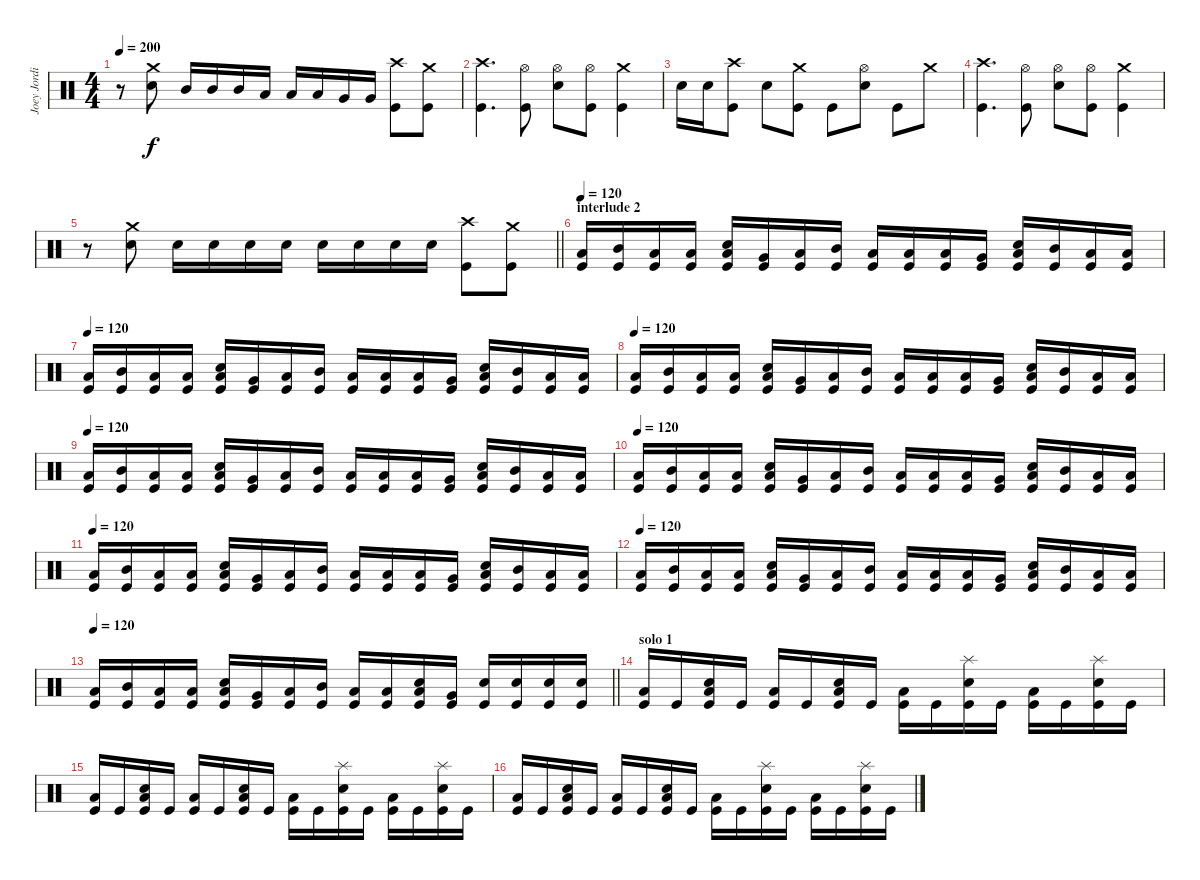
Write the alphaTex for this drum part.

\track ("Joey Jordison" "Joey Jordi") {instrument percussion}
\staff {score}
\articulation defaults
\ts (4 4)
\tempo 200
\clef neutral
\ks c
r.8{dy f} ("Crash medium (hit)" "Electric Snare (hit)").8 "Mid Tom (hit)".16 "Mid Tom (hit)".16 "Mid Tom (hit)".16 "Low Tom (hit)".16 "Low Tom (hit)".16 "Low Tom (hit)".16 "Very Low Tom (hit)".16 "Very Low Tom (hit)".16 ("Crash high (hit)" "Kick (hit)").8 ("Crash medium (hit)" "Kick (hit)").8 |
("Crash high (hit)" "Kick (hit)").4{d} ("Hi-Hat (open)" "Kick (hit)").8 ("Hi-Hat (open)" "Electric Snare (hit)").8 ("Hi-Hat (open)" "Kick (hit)").8 ("Crash medium (hit)" "Kick (hit)").4 |
"Electric Snare (hit)".16 "Electric Snare (hit)".16 ("Crash high (hit)" "Kick (hit)").8 "Electric Snare (hit)".8 ("Crash medium (hit)" "Kick (hit)").8 "Kick (hit)".8 ("Hi-Hat (open)" "Electric Snare (hit)").8 "Kick (hit)".8 "Crash medium (hit)".8 |
("Crash high (hit)" "Kick (hit)").4{d} ("Hi-Hat (open)" "Kick (hit)").8 ("Hi-Hat (open)" "Electric Snare (hit)").8 ("Hi-Hat (open)" "Kick (hit)").8 ("Crash medium (hit)" "Kick (hit)").4 |
\barLineRight lightlight
r.8 ("Crash medium (hit)" "Electric Snare (hit)").8 "Electric Snare (hit)".16 "Electric Snare (hit)".16 "Electric Snare (hit)".16 "Electric Snare (hit)".16 "Electric Snare (hit)".16 "Electric Snare (hit)".16 "Electric Snare (hit)".16 "Electric Snare (hit)".16 ("Crash high (hit)" "Kick (hit)").8 ("Crash medium (hit)" "Kick (hit)").8 |
\section ("" "interlude 2")
\tempo 120
("Low Floor Tom (hit)" "Kick (hit)").16 ("Mid Tom (hit)" "Kick (hit)").16 ("Low Floor Tom (hit)" "Kick (hit)").16 ("Low Tom (hit)" "Kick (hit)").16 ("Low Floor Tom (hit)" "Electric Snare (hit)" "Kick (hit)").16 ("Very Low Tom (hit)" "Kick (hit)").16 ("Low Floor Tom (hit)" "Kick (hit)").16 ("Mid Tom (hit)" "Kick (hit)").16 ("Low Floor Tom (hit)" "Kick (hit)").16 ("Low Tom (hit)" "Kick (hit)").16 ("Low Floor Tom (hit)" "Kick (hit)").16 ("Very Low Tom (hit)" "Kick (hit)").16 ("Low Floor Tom (hit)" "Electric Snare (hit)" "Kick (hit)").16 ("Mid Tom (hit)" "Kick (hit)").16 ("Low Floor Tom (hit)" "Kick (hit)").16 ("Low Tom (hit)" "Kick (hit)").16 |
\tempo 120
("Low Floor Tom (hit)" "Kick (hit)").16 ("Mid Tom (hit)" "Kick (hit)").16 ("Low Floor Tom (hit)" "Kick (hit)").16 ("Low Tom (hit)" "Kick (hit)").16 ("Low Floor Tom (hit)" "Electric Snare (hit)" "Kick (hit)").16 ("Very Low Tom (hit)" "Kick (hit)").16 ("Low Floor Tom (hit)" "Kick (hit)").16 ("Mid Tom (hit)" "Kick (hit)").16 ("Low Floor Tom (hit)" "Kick (hit)").16 ("Low Tom (hit)" "Kick (hit)").16 ("Low Floor Tom (hit)" "Kick (hit)").16 ("Very Low Tom (hit)" "Kick (hit)").16 ("Low Floor Tom (hit)" "Electric Snare (hit)" "Kick (hit)").16 ("Mid Tom (hit)" "Kick (hit)").16 ("Low Floor Tom (hit)" "Kick (hit)").16 ("Low Tom (hit)" "Kick (hit)").16 |
\tempo 120
("Low Floor Tom (hit)" "Kick (hit)").16 ("Mid Tom (hit)" "Kick (hit)").16 ("Low Floor Tom (hit)" "Kick (hit)").16 ("Low Tom (hit)" "Kick (hit)").16 ("Low Floor Tom (hit)" "Electric Snare (hit)" "Kick (hit)").16 ("Very Low Tom (hit)" "Kick (hit)").16 ("Low Floor Tom (hit)" "Kick (hit)").16 ("Mid Tom (hit)" "Kick (hit)").16 ("Low Floor Tom (hit)" "Kick (hit)").16 ("Low Tom (hit)" "Kick (hit)").16 ("Low Floor Tom (hit)" "Kick (hit)").16 ("Very Low Tom (hit)" "Kick (hit)").16 ("Low Floor Tom (hit)" "Electric Snare (hit)" "Kick (hit)").16 ("Mid Tom (hit)" "Kick (hit)").16 ("Low Floor Tom (hit)" "Kick (hit)").16 ("Low Tom (hit)" "Kick (hit)").16 |
\tempo 120
("Low Floor Tom (hit)" "Kick (hit)").16 ("Mid Tom (hit)" "Kick (hit)").16 ("Low Floor Tom (hit)" "Kick (hit)").16 ("Low Tom (hit)" "Kick (hit)").16 ("Low Floor Tom (hit)" "Electric Snare (hit)" "Kick (hit)").16 ("Very Low Tom (hit)" "Kick (hit)").16 ("Low Floor Tom (hit)" "Kick (hit)").16 ("Mid Tom (hit)" "Kick (hit)").16 ("Low Floor Tom (hit)" "Kick (hit)").16 ("Low Tom (hit)" "Kick (hit)").16 ("Low Floor Tom (hit)" "Kick (hit)").16 ("Very Low Tom (hit)" "Kick (hit)").16 ("Low Floor Tom (hit)" "Electric Snare (hit)" "Kick (hit)").16 ("Mid Tom (hit)" "Kick (hit)").16 ("Low Floor Tom (hit)" "Kick (hit)").16 ("Low Tom (hit)" "Kick (hit)").16 |
\tempo 120
("Low Floor Tom (hit)" "Kick (hit)").16 ("Mid Tom (hit)" "Kick (hit)").16 ("Low Floor Tom (hit)" "Kick (hit)").16 ("Low Tom (hit)" "Kick (hit)").16 ("Low Floor Tom (hit)" "Electric Snare (hit)" "Kick (hit)").16 ("Very Low Tom (hit)" "Kick (hit)").16 ("Low Floor Tom (hit)" "Kick (hit)").16 ("Mid Tom (hit)" "Kick (hit)").16 ("Low Floor Tom (hit)" "Kick (hit)").16 ("Low Tom (hit)" "Kick (hit)").16 ("Low Floor Tom (hit)" "Kick (hit)").16 ("Very Low Tom (hit)" "Kick (hit)").16 ("Low Floor Tom (hit)" "Electric Snare (hit)" "Kick (hit)").16 ("Mid Tom (hit)" "Kick (hit)").16 ("Low Floor Tom (hit)" "Kick (hit)").16 ("Low Tom (hit)" "Kick (hit)").16 |
\tempo 120
("Low Floor Tom (hit)" "Kick (hit)").16 ("Mid Tom (hit)" "Kick (hit)").16 ("Low Floor Tom (hit)" "Kick (hit)").16 ("Low Tom (hit)" "Kick (hit)").16 ("Low Floor Tom (hit)" "Electric Snare (hit)" "Kick (hit)").16 ("Very Low Tom (hit)" "Kick (hit)").16 ("Low Floor Tom (hit)" "Kick (hit)").16 ("Mid Tom (hit)" "Kick (hit)").16 ("Low Floor Tom (hit)" "Kick (hit)").16 ("Low Tom (hit)" "Kick (hit)").16 ("Low Floor Tom (hit)" "Kick (hit)").16 ("Very Low Tom (hit)" "Kick (hit)").16 ("Low Floor Tom (hit)" "Electric Snare (hit)" "Kick (hit)").16 ("Mid Tom (hit)" "Kick (hit)").16 ("Low Floor Tom (hit)" "Kick (hit)").16 ("Low Tom (hit)" "Kick (hit)").16 |
\tempo 120
("Low Floor Tom (hit)" "Kick (hit)").16 ("Mid Tom (hit)" "Kick (hit)").16 ("Low Floor Tom (hit)" "Kick (hit)").16 ("Low Tom (hit)" "Kick (hit)").16 ("Low Floor Tom (hit)" "Electric Snare (hit)" "Kick (hit)").16 ("Very Low Tom (hit)" "Kick (hit)").16 ("Low Floor Tom (hit)" "Kick (hit)").16 ("Mid Tom (hit)" "Kick (hit)").16 ("Low Floor Tom (hit)" "Kick (hit)").16 ("Low Tom (hit)" "Kick (hit)").16 ("Low Floor Tom (hit)" "Kick (hit)").16 ("Very Low Tom (hit)" "Kick (hit)").16 ("Low Floor Tom (hit)" "Electric Snare (hit)" "Kick (hit)").16 ("Mid Tom (hit)" "Kick (hit)").16 ("Low Floor Tom (hit)" "Kick (hit)").16 ("Low Tom (hit)" "Kick (hit)").16 |
\tempo 120
\barLineRight lightlight
("Low Floor Tom (hit)" "Kick (hit)").16 ("Mid Tom (hit)" "Kick (hit)").16 ("Low Floor Tom (hit)" "Kick (hit)").16 ("Low Tom (hit)" "Kick (hit)").16 ("Low Floor Tom (hit)" "Electric Snare (hit)" "Kick (hit)").16 ("Very Low Tom (hit)" "Kick (hit)").16 ("Low Floor Tom (hit)" "Kick (hit)").16 ("Mid Tom (hit)" "Kick (hit)").16 ("Low Floor Tom (hit)" "Kick (hit)").16 ("Low Tom (hit)" "Kick (hit)").16 ("Low Floor Tom (hit)" "Electric Snare (hit)" "Kick (hit)").16 ("Very Low Tom (hit)" "Kick (hit)").16 ("Electric Snare (hit)" "Kick (hit)").16 ("Electric Snare (hit)" "Kick (hit)").16 ("Electric Snare (hit)" "Kick (hit)").16 ("Electric Snare (hit)" "Kick (hit)").16 |
\section ("" "solo 1")
("Low Floor Tom (hit)" "Kick (hit)").16 "Kick (hit)".16 ("Low Floor Tom (hit)" "Electric Snare (hit)" "Kick (hit)").16 "Kick (hit)".16 ("Low Floor Tom (hit)" "Kick (hit)").16 "Kick (hit)".16 ("Low Floor Tom (hit)" "Electric Snare (hit)" "Kick (hit)").16 "Kick (hit)".16 ("Low Floor Tom (hit)" "Kick (hit)").16 "Kick (hit)".16 ("Splash (hit)" "Electric Snare (hit)" "Kick (hit)").16 "Kick (hit)".16 ("Low Floor Tom (hit)" "Kick (hit)").16 "Kick (hit)".16 ("Splash (hit)" "Electric Snare (hit)" "Kick (hit)").16 "Kick (hit)".16 |
("Low Floor Tom (hit)" "Kick (hit)").16 "Kick (hit)".16 ("Low Floor Tom (hit)" "Electric Snare (hit)" "Kick (hit)").16 "Kick (hit)".16 ("Low Floor Tom (hit)" "Kick (hit)").16 "Kick (hit)".16 ("Low Floor Tom (hit)" "Electric Snare (hit)" "Kick (hit)").16 "Kick (hit)".16 ("Low Floor Tom (hit)" "Kick (hit)").16 "Kick (hit)".16 ("Splash (hit)" "Electric Snare (hit)" "Kick (hit)").16 "Kick (hit)".16 ("Low Floor Tom (hit)" "Kick (hit)").16 "Kick (hit)".16 ("Splash (hit)" "Electric Snare (hit)" "Kick (hit)").16 "Kick (hit)".16 |
("Low Floor Tom (hit)" "Kick (hit)").16 "Kick (hit)".16 ("Low Floor Tom (hit)" "Electric Snare (hit)" "Kick (hit)").16 "Kick (hit)".16 ("Low Floor Tom (hit)" "Kick (hit)").16 "Kick (hit)".16 ("Low Floor Tom (hit)" "Electric Snare (hit)" "Kick (hit)").16 "Kick (hit)".16 ("Low Floor Tom (hit)" "Kick (hit)").16 "Kick (hit)".16 ("Splash (hit)" "Electric Snare (hit)" "Kick (hit)").16 "Kick (hit)".16 ("Low Floor Tom (hit)" "Kick (hit)").16 "Kick (hit)".16 ("Splash (hit)" "Electric Snare (hit)" "Kick (hit)").16 "Kick (hit)".16
